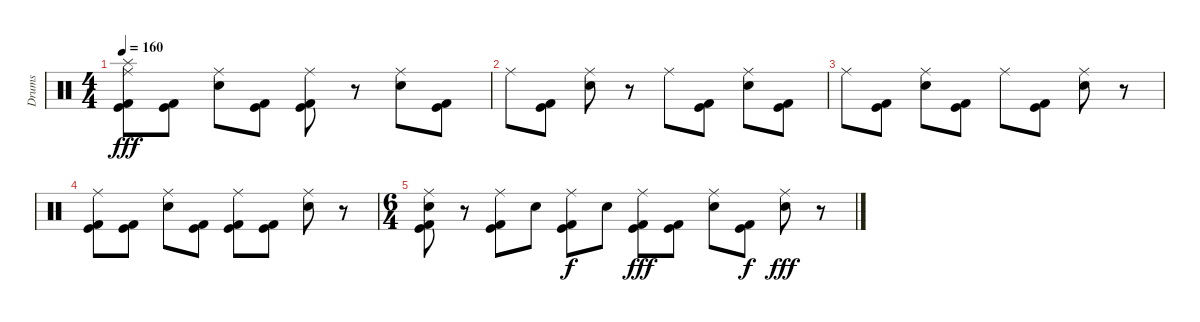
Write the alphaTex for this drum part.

\track ("Drums" "Drums") {instrument percussion}
\staff {score}
\articulation defaults
\ts (4 4)
\tempo 160
\clef neutral
\ks c
("Splash (hit)" "Ride (middle)" "Kick (hit)" "Kick (hit) 2").8{dy fff} ("Kick (hit)" "Kick (hit) 2").8 ("Ride (middle)" "Electric Snare (hit)").8 ("Kick (hit)" "Kick (hit) 2").8 ("Ride (middle)" "Kick (hit)" "Kick (hit) 2").8 r.8 ("Ride (middle)" "Electric Snare (hit)").8 ("Kick (hit)" "Kick (hit) 2").8 |
"Ride (middle)".8 ("Kick (hit)" "Kick (hit) 2").8 ("Ride (middle)" "Electric Snare (hit)").8 r.8 "Ride (middle)".8 ("Kick (hit)" "Kick (hit) 2").8 ("Ride (middle)" "Electric Snare (hit)").8 ("Kick (hit)" "Kick (hit) 2").8 |
"Ride (middle)".8 ("Kick (hit)" "Kick (hit) 2").8 ("Ride (middle)" "Electric Snare (hit)").8 ("Kick (hit)" "Kick (hit) 2").8 "Ride (middle)".8 ("Kick (hit)" "Kick (hit) 2").8 ("Ride (middle)" "Electric Snare (hit)").8 r.8 |
("Ride (middle)" "Kick (hit)" "Kick (hit) 2").8 ("Kick (hit)" "Kick (hit) 2").8 ("Ride (middle)" "Electric Snare (hit)").8 ("Kick (hit)" "Kick (hit) 2").8 ("Ride (middle)" "Kick (hit)" "Kick (hit) 2").8 ("Kick (hit)" "Kick (hit) 2").8 ("Ride (middle)" "Electric Snare (hit)").8 r.8 |
\ts (6 4)
("Ride (middle)" "Electric Snare (hit)" "Kick (hit)" "Kick (hit) 2").8 r.8 ("Ride (middle)" "Kick (hit)" "Kick (hit) 2").8 "Electric Snare (hit)".8 ("Ride (middle)" "Kick (hit)" "Kick (hit) 2").8{dy f} "Electric Snare (hit)".8 ("Ride (middle)" "Kick (hit)" "Kick (hit) 2").8{dy fff} ("Kick (hit)" "Kick (hit) 2").8 ("Ride (middle)" "Electric Snare (hit)").8 ("Kick (hit)" "Kick (hit) 2").8{dy f} ("Ride (middle)" "Electric Snare (hit)").8{dy fff} r.8
